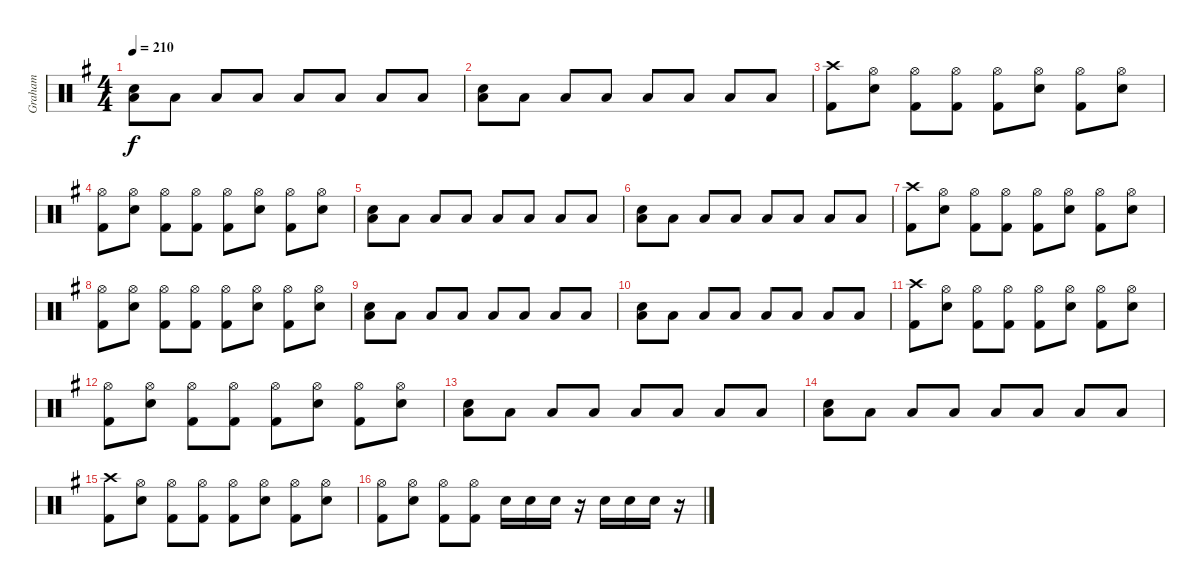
\track ("Graham" "Graham") {instrument percussion}
\staff {score}
\articulation defaults
\ts (4 4)
\tempo 210
\clef neutral
\ks g
("Electric Snare (hit)" "Low Tom (hit)").8{dy f} "Low Floor Tom (hit)".8 "Low Floor Tom (hit)".8 "Low Tom (hit)".8 "Low Floor Tom (hit)".8 "Low Floor Tom (hit)".8 "Low Tom (hit)".8 "Low Floor Tom (hit)".8 |
("Electric Snare (hit)" "Low Tom (hit)").8 "Low Floor Tom (hit)".8 "Low Floor Tom (hit)".8 "Low Tom (hit)".8 "Low Floor Tom (hit)".8 "Low Floor Tom (hit)".8 "Low Tom (hit)".8 "Low Floor Tom (hit)".8 |
("Crash high (hit)" "Kick (hit) 2").8 ("Hi-Hat (open)" "Electric Snare (hit)").8 ("Hi-Hat (open)" "Kick (hit) 2").8 ("Hi-Hat (open)" "Kick (hit) 2").8 ("Hi-Hat (open)" "Kick (hit) 2").8 ("Hi-Hat (open)" "Electric Snare (hit)").8 ("Hi-Hat (open)" "Kick (hit) 2").8 ("Hi-Hat (open)" "Electric Snare (hit)").8 |
("Hi-Hat (open)" "Kick (hit) 2").8 ("Hi-Hat (open)" "Electric Snare (hit)").8 ("Hi-Hat (open)" "Kick (hit) 2").8 ("Hi-Hat (open)" "Kick (hit) 2").8 ("Hi-Hat (open)" "Kick (hit) 2").8 ("Hi-Hat (open)" "Electric Snare (hit)").8 ("Hi-Hat (open)" "Kick (hit) 2").8 ("Hi-Hat (open)" "Electric Snare (hit)").8 |
("Electric Snare (hit)" "Low Tom (hit)").8 "Low Floor Tom (hit)".8 "Low Floor Tom (hit)".8 "Low Tom (hit)".8 "Low Floor Tom (hit)".8 "Low Floor Tom (hit)".8 "Low Tom (hit)".8 "Low Floor Tom (hit)".8 |
("Electric Snare (hit)" "Low Tom (hit)").8 "Low Floor Tom (hit)".8 "Low Floor Tom (hit)".8 "Low Tom (hit)".8 "Low Floor Tom (hit)".8 "Low Floor Tom (hit)".8 "Low Tom (hit)".8 "Low Floor Tom (hit)".8 |
("Crash high (hit)" "Kick (hit) 2").8 ("Hi-Hat (open)" "Electric Snare (hit)").8 ("Hi-Hat (open)" "Kick (hit) 2").8 ("Hi-Hat (open)" "Kick (hit) 2").8 ("Hi-Hat (open)" "Kick (hit) 2").8 ("Hi-Hat (open)" "Electric Snare (hit)").8 ("Hi-Hat (open)" "Kick (hit) 2").8 ("Hi-Hat (open)" "Electric Snare (hit)").8 |
("Hi-Hat (open)" "Kick (hit) 2").8 ("Hi-Hat (open)" "Electric Snare (hit)").8 ("Hi-Hat (open)" "Kick (hit) 2").8 ("Hi-Hat (open)" "Kick (hit) 2").8 ("Hi-Hat (open)" "Kick (hit) 2").8 ("Hi-Hat (open)" "Electric Snare (hit)").8 ("Hi-Hat (open)" "Kick (hit) 2").8 ("Hi-Hat (open)" "Electric Snare (hit)").8 |
("Electric Snare (hit)" "Low Tom (hit)").8 "Low Floor Tom (hit)".8 "Low Floor Tom (hit)".8 "Low Tom (hit)".8 "Low Floor Tom (hit)".8 "Low Floor Tom (hit)".8 "Low Tom (hit)".8 "Low Floor Tom (hit)".8 |
("Electric Snare (hit)" "Low Tom (hit)").8 "Low Floor Tom (hit)".8 "Low Floor Tom (hit)".8 "Low Tom (hit)".8 "Low Floor Tom (hit)".8 "Low Floor Tom (hit)".8 "Low Tom (hit)".8 "Low Floor Tom (hit)".8 |
("Crash high (hit)" "Kick (hit) 2").8 ("Hi-Hat (open)" "Electric Snare (hit)").8 ("Hi-Hat (open)" "Kick (hit) 2").8 ("Hi-Hat (open)" "Kick (hit) 2").8 ("Hi-Hat (open)" "Kick (hit) 2").8 ("Hi-Hat (open)" "Electric Snare (hit)").8 ("Hi-Hat (open)" "Kick (hit) 2").8 ("Hi-Hat (open)" "Electric Snare (hit)").8 |
("Hi-Hat (open)" "Kick (hit) 2").8 ("Hi-Hat (open)" "Electric Snare (hit)").8 ("Hi-Hat (open)" "Kick (hit) 2").8 ("Hi-Hat (open)" "Kick (hit) 2").8 ("Hi-Hat (open)" "Kick (hit) 2").8 ("Hi-Hat (open)" "Electric Snare (hit)").8 ("Hi-Hat (open)" "Kick (hit) 2").8 ("Hi-Hat (open)" "Electric Snare (hit)").8 |
("Electric Snare (hit)" "Low Tom (hit)").8 "Low Floor Tom (hit)".8 "Low Floor Tom (hit)".8 "Low Tom (hit)".8 "Low Floor Tom (hit)".8 "Low Floor Tom (hit)".8 "Low Tom (hit)".8 "Low Floor Tom (hit)".8 |
("Electric Snare (hit)" "Low Tom (hit)").8 "Low Floor Tom (hit)".8 "Low Floor Tom (hit)".8 "Low Tom (hit)".8 "Low Floor Tom (hit)".8 "Low Floor Tom (hit)".8 "Low Tom (hit)".8 "Low Floor Tom (hit)".8 |
("Crash high (hit)" "Kick (hit) 2").8 ("Hi-Hat (open)" "Electric Snare (hit)").8 ("Hi-Hat (open)" "Kick (hit) 2").8 ("Hi-Hat (open)" "Kick (hit) 2").8 ("Hi-Hat (open)" "Kick (hit) 2").8 ("Hi-Hat (open)" "Electric Snare (hit)").8 ("Hi-Hat (open)" "Kick (hit) 2").8 ("Hi-Hat (open)" "Electric Snare (hit)").8 |
("Hi-Hat (open)" "Kick (hit) 2").8 ("Hi-Hat (open)" "Electric Snare (hit)").8 ("Hi-Hat (open)" "Kick (hit) 2").8 ("Hi-Hat (open)" "Kick (hit) 2").8 "Electric Snare (hit)".16 "Electric Snare (hit)".16 "Electric Snare (hit)".16 r.16 "Electric Snare (hit)".16 "Electric Snare (hit)".16 "Electric Snare (hit)".16 r.16
